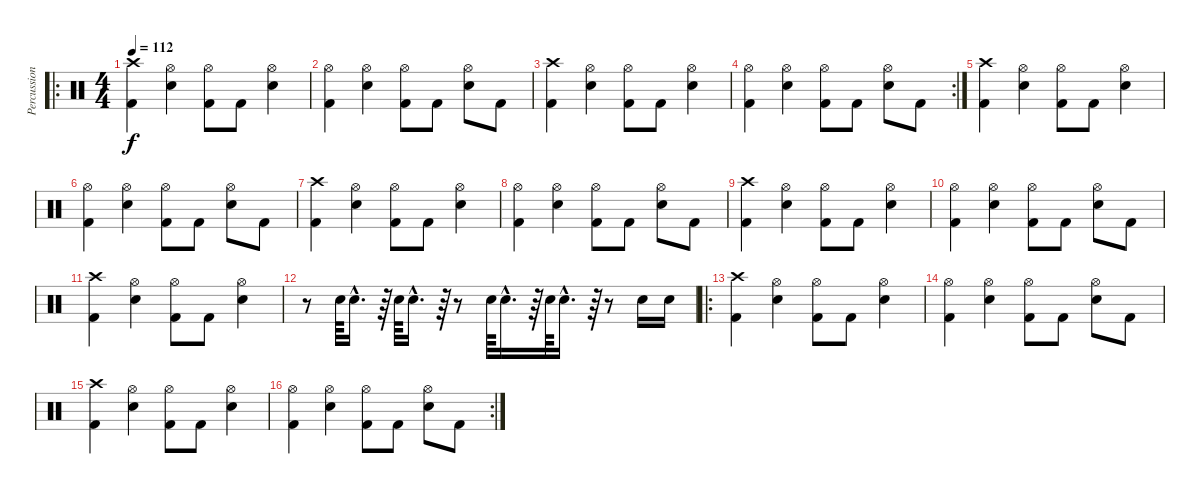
\track ("Percussion" "Percussion") {instrument percussion}
\staff {score}
\articulation defaults
\ro
\ts (4 4)
\tempo 112
\clef neutral
\ks c
("Crash high (hit)" "Kick (hit) 2").4{dy f} ("Hi-Hat (open)" "Snare (hit) 2").4 ("Hi-Hat (open)" "Kick (hit) 2").8 "Kick (hit) 2".8 ("Hi-Hat (open)" "Snare (hit) 2").4 |
("Hi-Hat (open)" "Kick (hit) 2").4 ("Hi-Hat (open)" "Snare (hit) 2").4 ("Hi-Hat (open)" "Kick (hit) 2").8 "Kick (hit) 2".8 ("Hi-Hat (open)" "Snare (hit) 2").8 "Kick (hit) 2".8 |
("Crash high (hit)" "Kick (hit) 2").4 ("Hi-Hat (open)" "Snare (hit) 2").4 ("Hi-Hat (open)" "Kick (hit) 2").8 "Kick (hit) 2".8 ("Hi-Hat (open)" "Snare (hit) 2").4 |
\rc 2
("Hi-Hat (open)" "Kick (hit) 2").4 ("Hi-Hat (open)" "Snare (hit) 2").4 ("Hi-Hat (open)" "Kick (hit) 2").8 "Kick (hit) 2".8 ("Hi-Hat (open)" "Snare (hit) 2").8 "Kick (hit) 2".8 |
("Crash high (hit)" "Kick (hit) 2").4 ("Hi-Hat (open)" "Snare (hit) 2").4 ("Hi-Hat (open)" "Kick (hit) 2").8 "Kick (hit) 2".8 ("Hi-Hat (open)" "Snare (hit) 2").4 |
("Hi-Hat (open)" "Kick (hit) 2").4 ("Hi-Hat (open)" "Snare (hit) 2").4 ("Hi-Hat (open)" "Kick (hit) 2").8 "Kick (hit) 2".8 ("Hi-Hat (open)" "Snare (hit) 2").8 "Kick (hit) 2".8 |
("Crash high (hit)" "Kick (hit) 2").4 ("Hi-Hat (open)" "Snare (hit) 2").4 ("Hi-Hat (open)" "Kick (hit) 2").8 "Kick (hit) 2".8 ("Hi-Hat (open)" "Snare (hit) 2").4 |
("Hi-Hat (open)" "Kick (hit) 2").4 ("Hi-Hat (open)" "Snare (hit) 2").4 ("Hi-Hat (open)" "Kick (hit) 2").8 "Kick (hit) 2".8 ("Hi-Hat (open)" "Snare (hit) 2").8 "Kick (hit) 2".8 |
("Crash high (hit)" "Kick (hit) 2").4 ("Hi-Hat (open)" "Snare (hit) 2").4 ("Hi-Hat (open)" "Kick (hit) 2").8 "Kick (hit) 2".8 ("Hi-Hat (open)" "Snare (hit) 2").4 |
("Hi-Hat (open)" "Kick (hit) 2").4 ("Hi-Hat (open)" "Snare (hit) 2").4 ("Hi-Hat (open)" "Kick (hit) 2").8 "Kick (hit) 2".8 ("Hi-Hat (open)" "Snare (hit) 2").8 "Kick (hit) 2".8 |
("Crash high (hit)" "Kick (hit) 2").4 ("Hi-Hat (open)" "Snare (hit) 2").4 ("Hi-Hat (open)" "Kick (hit) 2").8 "Kick (hit) 2".8 ("Hi-Hat (open)" "Snare (hit) 2").4 |
r.8 "Snare (hit) 2".64 "Snare (hit) 2"{hac}.16{d} r.64 "Snare (hit) 2".64 "Snare (hit) 2"{hac}.16{d} r.64 r.8 "Snare (hit) 2".64 "Snare (hit) 2"{hac}.16{d} r.64 "Snare (hit) 2".64 "Snare (hit) 2"{hac}.16{d} r.64 r.8 "Snare (hit) 2".16 "Snare (hit) 2".16 |
\ro
("Crash high (hit)" "Kick (hit) 2").4 ("Hi-Hat (open)" "Snare (hit) 2").4 ("Hi-Hat (open)" "Kick (hit) 2").8 "Kick (hit) 2".8 ("Hi-Hat (open)" "Snare (hit) 2").4 |
("Hi-Hat (open)" "Kick (hit) 2").4 ("Hi-Hat (open)" "Snare (hit) 2").4 ("Hi-Hat (open)" "Kick (hit) 2").8 "Kick (hit) 2".8 ("Hi-Hat (open)" "Snare (hit) 2").8 "Kick (hit) 2".8 |
("Crash high (hit)" "Kick (hit) 2").4 ("Hi-Hat (open)" "Snare (hit) 2").4 ("Hi-Hat (open)" "Kick (hit) 2").8 "Kick (hit) 2".8 ("Hi-Hat (open)" "Snare (hit) 2").4 |
\rc 2
("Hi-Hat (open)" "Kick (hit) 2").4 ("Hi-Hat (open)" "Snare (hit) 2").4 ("Hi-Hat (open)" "Kick (hit) 2").8 "Kick (hit) 2".8 ("Hi-Hat (open)" "Snare (hit) 2").8 "Kick (hit) 2".8
